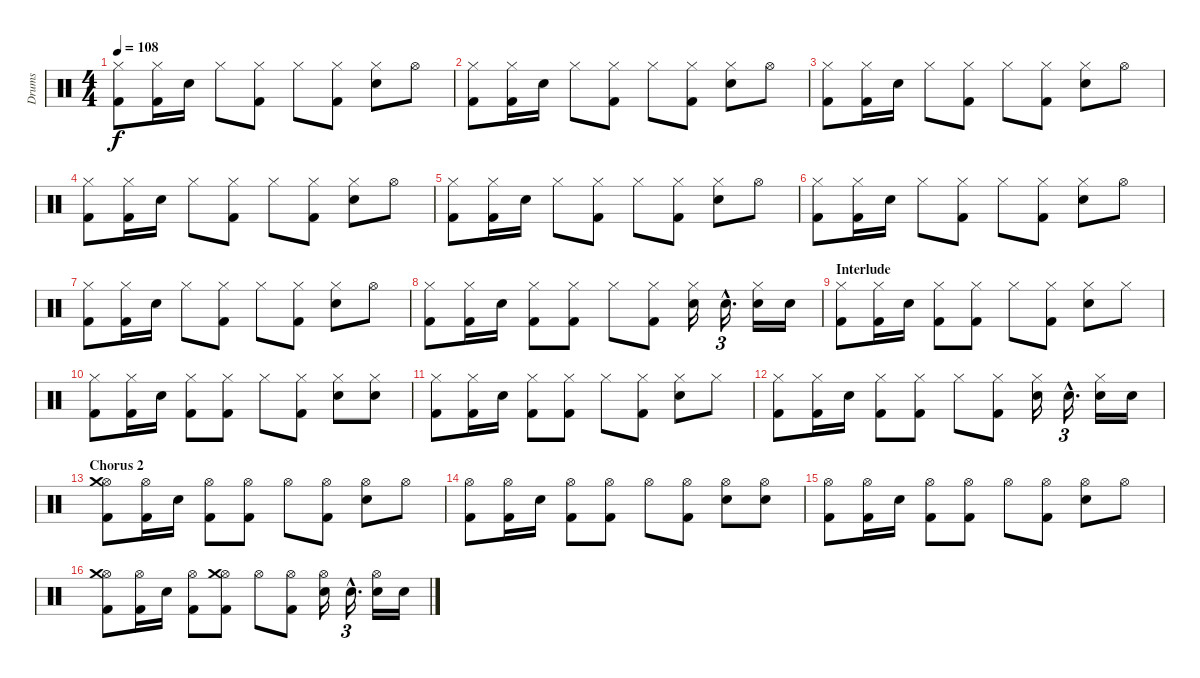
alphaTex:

\track ("Drums" "Drums") {instrument percussion}
\staff {score}
\articulation defaults
\ts (4 4)
\tempo 108
\clef neutral
\ks c
("Hi-Hat (closed)" "Kick (hit) 2").8{dy f} ("Hi-Hat (closed)" "Kick (hit) 2").16 "Electric Snare (hit)".16 "Hi-Hat (closed)".8 ("Hi-Hat (closed)" "Kick (hit) 2").8 "Hi-Hat (closed)".8 ("Hi-Hat (closed)" "Kick (hit) 2").8 ("Hi-Hat (closed)" "Electric Snare (hit)").8 "Hi-Hat (open)".8 |
("Hi-Hat (closed)" "Kick (hit) 2").8 ("Hi-Hat (closed)" "Kick (hit) 2").16 "Electric Snare (hit)".16 "Hi-Hat (closed)".8 ("Hi-Hat (closed)" "Kick (hit) 2").8 "Hi-Hat (closed)".8 ("Hi-Hat (closed)" "Kick (hit) 2").8 ("Hi-Hat (closed)" "Electric Snare (hit)").8 "Hi-Hat (open)".8 |
("Hi-Hat (closed)" "Kick (hit) 2").8 ("Hi-Hat (closed)" "Kick (hit) 2").16 "Electric Snare (hit)".16 "Hi-Hat (closed)".8 ("Hi-Hat (closed)" "Kick (hit) 2").8 "Hi-Hat (closed)".8 ("Hi-Hat (closed)" "Kick (hit) 2").8 ("Hi-Hat (closed)" "Electric Snare (hit)").8 "Hi-Hat (open)".8 |
("Hi-Hat (closed)" "Kick (hit) 2").8 ("Hi-Hat (closed)" "Kick (hit) 2").16 "Electric Snare (hit)".16 "Hi-Hat (closed)".8 ("Hi-Hat (closed)" "Kick (hit) 2").8 "Hi-Hat (closed)".8 ("Hi-Hat (closed)" "Kick (hit) 2").8 ("Hi-Hat (closed)" "Electric Snare (hit)").8 "Hi-Hat (open)".8 |
("Hi-Hat (closed)" "Kick (hit) 2").8 ("Hi-Hat (closed)" "Kick (hit) 2").16 "Electric Snare (hit)".16 "Hi-Hat (closed)".8 ("Hi-Hat (closed)" "Kick (hit) 2").8 "Hi-Hat (closed)".8 ("Hi-Hat (closed)" "Kick (hit) 2").8 ("Hi-Hat (closed)" "Electric Snare (hit)").8 "Hi-Hat (open)".8 |
("Hi-Hat (closed)" "Kick (hit) 2").8 ("Hi-Hat (closed)" "Kick (hit) 2").16 "Electric Snare (hit)".16 "Hi-Hat (closed)".8 ("Hi-Hat (closed)" "Kick (hit) 2").8 "Hi-Hat (closed)".8 ("Hi-Hat (closed)" "Kick (hit) 2").8 ("Hi-Hat (closed)" "Electric Snare (hit)").8 "Hi-Hat (open)".8 |
("Hi-Hat (closed)" "Kick (hit) 2").8 ("Hi-Hat (closed)" "Kick (hit) 2").16 "Electric Snare (hit)".16 "Hi-Hat (closed)".8 ("Hi-Hat (closed)" "Kick (hit) 2").8 "Hi-Hat (closed)".8 ("Hi-Hat (closed)" "Kick (hit) 2").8 ("Hi-Hat (closed)" "Electric Snare (hit)").8 "Hi-Hat (open)".8 |
("Hi-Hat (closed)" "Kick (hit) 2").8 ("Hi-Hat (closed)" "Kick (hit) 2").16 "Electric Snare (hit)".16 ("Hi-Hat (closed)" "Kick (hit) 2").8 ("Hi-Hat (closed)" "Kick (hit) 2").8 "Hi-Hat (closed)".8 ("Hi-Hat (closed)" "Kick (hit) 2").8 ("Hi-Hat (closed)" "Electric Snare (hit)").16 "Electric Snare (hit)"{hac}.16{d tu (3 2)} ("Hi-Hat (closed)" "Electric Snare (hit)").16 "Electric Snare (hit)".16 |
\section ("" "Interlude")
("Hi-Hat (closed)" "Kick (hit) 2").8 ("Hi-Hat (closed)" "Kick (hit) 2").16 "Electric Snare (hit)".16 ("Hi-Hat (closed)" "Kick (hit) 2").8 ("Hi-Hat (closed)" "Kick (hit) 2").8 "Hi-Hat (closed)".8 ("Hi-Hat (closed)" "Kick (hit) 2").8 ("Hi-Hat (closed)" "Electric Snare (hit)").8 "Hi-Hat (closed)".8 |
("Hi-Hat (closed)" "Kick (hit) 2").8 ("Hi-Hat (closed)" "Kick (hit) 2").16 "Electric Snare (hit)".16 ("Hi-Hat (closed)" "Kick (hit) 2").8 ("Hi-Hat (closed)" "Kick (hit) 2").8 "Hi-Hat (closed)".8 ("Hi-Hat (closed)" "Kick (hit) 2").8 ("Hi-Hat (closed)" "Electric Snare (hit)").8 ("Hi-Hat (closed)" "Electric Snare (hit)").8 |
("Hi-Hat (closed)" "Kick (hit) 2").8 ("Hi-Hat (closed)" "Kick (hit) 2").16 "Electric Snare (hit)".16 ("Hi-Hat (closed)" "Kick (hit) 2").8 ("Hi-Hat (closed)" "Kick (hit) 2").8 "Hi-Hat (closed)".8 ("Hi-Hat (closed)" "Kick (hit) 2").8 ("Hi-Hat (closed)" "Electric Snare (hit)").8 "Hi-Hat (closed)".8 |
("Hi-Hat (closed)" "Kick (hit) 2").8 ("Hi-Hat (closed)" "Kick (hit) 2").16 "Electric Snare (hit)".16 ("Hi-Hat (closed)" "Kick (hit) 2").8 ("Hi-Hat (closed)" "Kick (hit) 2").8 "Hi-Hat (closed)".8 ("Hi-Hat (closed)" "Kick (hit) 2").8 ("Hi-Hat (closed)" "Electric Snare (hit)").16 "Electric Snare (hit)"{hac}.16{d tu (3 2)} ("Hi-Hat (closed)" "Electric Snare (hit)").16 "Electric Snare (hit)".16 |
\section ("" "Chorus 2")
("Hi-Hat (open)" "Kick (hit) 2" "Crash medium (hit)").8 ("Hi-Hat (open)" "Kick (hit) 2").16 "Electric Snare (hit)".16 ("Hi-Hat (open)" "Kick (hit) 2").8 ("Hi-Hat (open)" "Kick (hit) 2").8 "Hi-Hat (open)".8 ("Hi-Hat (open)" "Kick (hit) 2").8 ("Hi-Hat (open)" "Electric Snare (hit)").8 "Hi-Hat (open)".8 |
("Hi-Hat (open)" "Kick (hit) 2").8 ("Hi-Hat (open)" "Kick (hit) 2").16 "Electric Snare (hit)".16 ("Hi-Hat (open)" "Kick (hit) 2").8 ("Hi-Hat (open)" "Kick (hit) 2").8 "Hi-Hat (open)".8 ("Hi-Hat (open)" "Kick (hit) 2").8 ("Hi-Hat (open)" "Electric Snare (hit)").8 ("Hi-Hat (open)" "Electric Snare (hit)").8 |
("Hi-Hat (open)" "Kick (hit) 2").8 ("Hi-Hat (open)" "Kick (hit) 2").16 "Electric Snare (hit)".16 ("Hi-Hat (open)" "Kick (hit) 2").8 ("Hi-Hat (open)" "Kick (hit) 2").8 "Hi-Hat (open)".8 ("Hi-Hat (open)" "Kick (hit) 2").8 ("Hi-Hat (open)" "Electric Snare (hit)").8 "Hi-Hat (open)".8 |
("Hi-Hat (open)" "Kick (hit) 2" "Crash medium (hit)").8 ("Hi-Hat (open)" "Kick (hit) 2").16 "Electric Snare (hit)".16 ("Hi-Hat (open)" "Kick (hit) 2").8 ("Hi-Hat (open)" "Kick (hit) 2" "Crash medium (hit)").8 "Hi-Hat (open)".8 ("Hi-Hat (open)" "Kick (hit) 2").8 ("Hi-Hat (open)" "Electric Snare (hit)").16 "Electric Snare (hit)"{hac}.16{d tu (3 2)} ("Hi-Hat (open)" "Electric Snare (hit)").16 "Electric Snare (hit)".16
